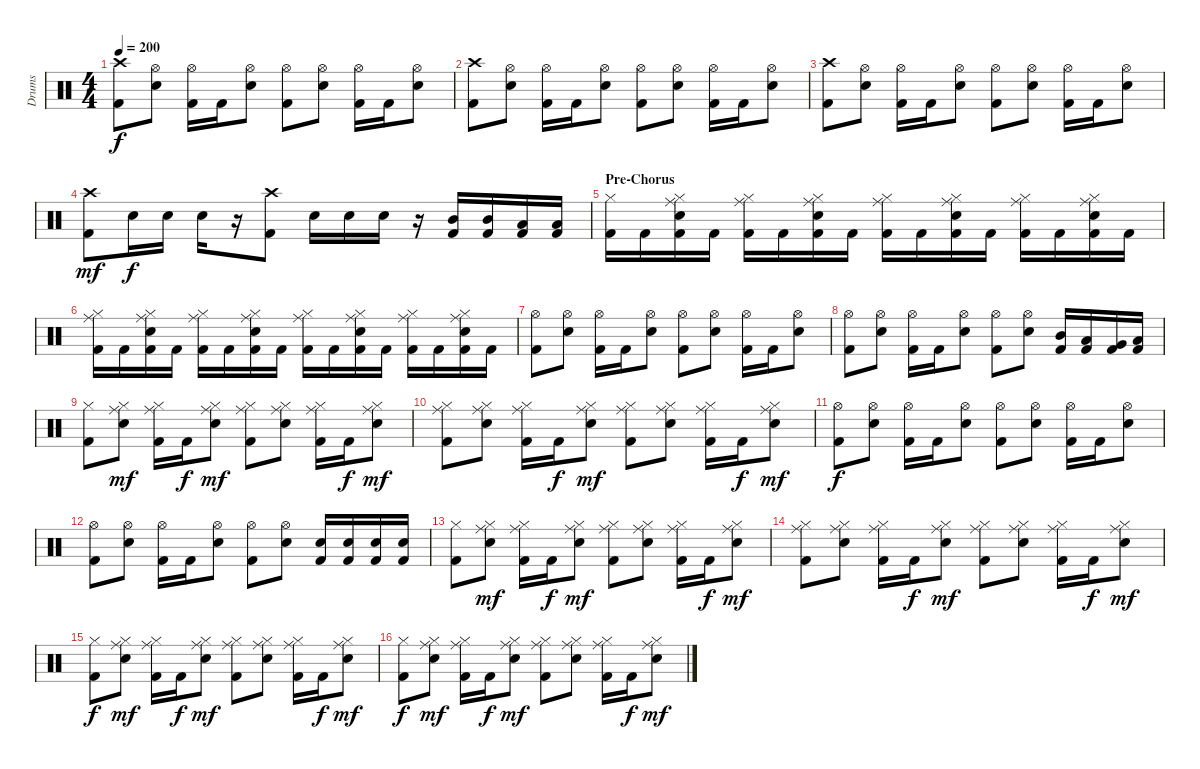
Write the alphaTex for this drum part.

\track ("Drums" "Drums") {instrument percussion}
\staff {score}
\articulation defaults
\ts (4 4)
\tempo 200
\clef neutral
\ks c
("Crash high (hit)" "Kick (hit) 2").8{dy f} ("Hi-Hat (open)" "Snare (hit) 2").8 ("Hi-Hat (open)" "Kick (hit) 2").16 "Kick (hit) 2".16 ("Hi-Hat (open)" "Snare (hit) 2").8 ("Hi-Hat (open)" "Kick (hit) 2").8 ("Hi-Hat (open)" "Snare (hit) 2").8 ("Hi-Hat (open)" "Kick (hit) 2").16 "Kick (hit) 2".16 ("Hi-Hat (open)" "Snare (hit) 2").8 |
("Crash high (hit)" "Kick (hit) 2").8 ("Hi-Hat (open)" "Snare (hit) 2").8 ("Hi-Hat (open)" "Kick (hit) 2").16 "Kick (hit) 2".16 ("Hi-Hat (open)" "Snare (hit) 2").8 ("Hi-Hat (open)" "Kick (hit) 2").8 ("Hi-Hat (open)" "Snare (hit) 2").8 ("Hi-Hat (open)" "Kick (hit) 2").16 "Kick (hit) 2".16 ("Hi-Hat (open)" "Snare (hit) 2").8 |
("Crash high (hit)" "Kick (hit) 2").8 ("Hi-Hat (open)" "Snare (hit) 2").8 ("Hi-Hat (open)" "Kick (hit) 2").16 "Kick (hit) 2".16 ("Hi-Hat (open)" "Snare (hit) 2").8 ("Hi-Hat (open)" "Kick (hit) 2").8 ("Hi-Hat (open)" "Snare (hit) 2").8 ("Hi-Hat (open)" "Kick (hit) 2").16 "Kick (hit) 2".16 ("Hi-Hat (open)" "Snare (hit) 2").8 |
("Crash high (hit)" "Kick (hit) 2").8{dy mf} "Snare (hit) 2".16{dy f} "Snare (hit) 2".16 "Snare (hit) 2".16 r.16 ("Crash high (hit)" "Kick (hit) 2").8 "Snare (hit) 2".16 "Snare (hit) 2".16 "Snare (hit) 2".16 r.16 ("Mid Tom (hit)" "Kick (hit) 2").16 ("Mid Tom (hit)" "Kick (hit) 2").16 ("Low Tom (hit)" "Kick (hit) 2").16 ("Low Tom (hit)" "Kick (hit) 2").16 |
\section ("" "Pre-Chorus")
("Hi-Hat (closed)" "Kick (hit) 2").16 "Kick (hit) 2".16 ("Hi-Hat (closed)" "Ride (middle)" "Snare (hit) 2" "Kick (hit) 2").16 "Kick (hit) 2".16 ("Hi-Hat (closed)" "Ride (middle)" "Kick (hit) 2").16 "Kick (hit) 2".16 ("Hi-Hat (closed)" "Ride (middle)" "Snare (hit) 2" "Kick (hit) 2").16 "Kick (hit) 2".16 ("Hi-Hat (closed)" "Ride (middle)" "Kick (hit) 2").16 "Kick (hit) 2".16 ("Hi-Hat (closed)" "Ride (middle)" "Snare (hit) 2" "Kick (hit) 2").16 "Kick (hit) 2".16 ("Hi-Hat (closed)" "Ride (middle)" "Kick (hit) 2").16 "Kick (hit) 2".16 ("Hi-Hat (closed)" "Ride (middle)" "Snare (hit) 2" "Kick (hit) 2").16 "Kick (hit) 2".16 |
("Hi-Hat (closed)" "Ride (middle)" "Kick (hit) 2").16 "Kick (hit) 2".16 ("Hi-Hat (closed)" "Ride (middle)" "Snare (hit) 2" "Kick (hit) 2").16 "Kick (hit) 2".16 ("Hi-Hat (closed)" "Ride (middle)" "Kick (hit) 2").16 "Kick (hit) 2".16 ("Hi-Hat (closed)" "Ride (middle)" "Snare (hit) 2" "Kick (hit) 2").16 "Kick (hit) 2".16 ("Hi-Hat (closed)" "Ride (middle)" "Kick (hit) 2").16 "Kick (hit) 2".16 ("Hi-Hat (closed)" "Ride (middle)" "Snare (hit) 2" "Kick (hit) 2").16 "Kick (hit) 2".16 ("Hi-Hat (closed)" "Ride (middle)" "Kick (hit) 2").16 "Kick (hit) 2".16 ("Hi-Hat (closed)" "Ride (middle)" "Snare (hit) 2" "Kick (hit) 2").16 "Kick (hit) 2".16 |
("Hi-Hat (open)" "Kick (hit) 2").8 ("Hi-Hat (open)" "Snare (hit) 2").8 ("Hi-Hat (open)" "Kick (hit) 2").16 "Kick (hit) 2".16 ("Hi-Hat (open)" "Snare (hit) 2").8 ("Hi-Hat (open)" "Kick (hit) 2").8 ("Hi-Hat (open)" "Snare (hit) 2").8 ("Hi-Hat (open)" "Kick (hit) 2").16 "Kick (hit) 2".16 ("Hi-Hat (open)" "Snare (hit) 2").8 |
("Hi-Hat (open)" "Kick (hit) 2").8 ("Hi-Hat (open)" "Snare (hit) 2").8 ("Hi-Hat (open)" "Kick (hit) 2").16 "Kick (hit) 2".16 ("Hi-Hat (open)" "Snare (hit) 2").8 ("Hi-Hat (open)" "Kick (hit) 2").8 ("Hi-Hat (open)" "Snare (hit) 2").8 ("Mid Tom (hit)" "Kick (hit) 2").16 ("Low Tom (hit)" "Kick (hit) 2").16 ("Very Low Tom (hit)" "Kick (hit) 2").16 ("Low Floor Tom (hit)" "Kick (hit) 2").16 |
("Hi-Hat (closed)" "Kick (hit) 2").8 ("Hi-Hat (closed)" "Ride (middle)" "Snare (hit) 2").8{dy mf} ("Hi-Hat (closed)" "Ride (middle)" "Kick (hit) 2").16 "Kick (hit) 2".16{dy f} ("Hi-Hat (closed)" "Ride (middle)" "Snare (hit) 2").8{dy mf} ("Hi-Hat (closed)" "Ride (middle)" "Kick (hit) 2").8 ("Hi-Hat (closed)" "Ride (middle)" "Snare (hit) 2").8 ("Hi-Hat (closed)" "Ride (middle)" "Kick (hit) 2").16 "Kick (hit) 2".16{dy f} ("Hi-Hat (closed)" "Ride (middle)" "Snare (hit) 2").8{dy mf} |
("Hi-Hat (closed)" "Ride (middle)" "Kick (hit) 2").8 ("Hi-Hat (closed)" "Ride (middle)" "Snare (hit) 2").8 ("Hi-Hat (closed)" "Ride (middle)" "Kick (hit) 2").16 "Kick (hit) 2".16{dy f} ("Hi-Hat (closed)" "Ride (middle)" "Snare (hit) 2").8{dy mf} ("Hi-Hat (closed)" "Ride (middle)" "Kick (hit) 2").8 ("Hi-Hat (closed)" "Ride (middle)" "Snare (hit) 2").8 ("Hi-Hat (closed)" "Ride (middle)" "Kick (hit) 2").16 "Kick (hit) 2".16{dy f} ("Hi-Hat (closed)" "Ride (middle)" "Snare (hit) 2").8{dy mf} |
("Hi-Hat (open)" "Kick (hit) 2").8{dy f} ("Hi-Hat (open)" "Snare (hit) 2").8 ("Hi-Hat (open)" "Kick (hit) 2").16 "Kick (hit) 2".16 ("Hi-Hat (open)" "Snare (hit) 2").8 ("Hi-Hat (open)" "Kick (hit) 2").8 ("Hi-Hat (open)" "Snare (hit) 2").8 ("Hi-Hat (open)" "Kick (hit) 2").16 "Kick (hit) 2".16 ("Hi-Hat (open)" "Snare (hit) 2").8 |
("Hi-Hat (open)" "Kick (hit) 2").8 ("Hi-Hat (open)" "Snare (hit) 2").8 ("Hi-Hat (open)" "Kick (hit) 2").16 "Kick (hit) 2".16 ("Hi-Hat (open)" "Snare (hit) 2").8 ("Hi-Hat (open)" "Kick (hit) 2").8 ("Hi-Hat (open)" "Snare (hit) 2").8 ("Snare (hit) 2" "Kick (hit) 2").16 ("Snare (hit) 2" "Kick (hit) 2").16 ("Snare (hit) 2" "Kick (hit) 2").16 ("Snare (hit) 2" "Kick (hit) 2").16 |
("Hi-Hat (closed)" "Kick (hit) 2").8 ("Hi-Hat (closed)" "Ride (middle)" "Snare (hit) 2").8{dy mf} ("Hi-Hat (closed)" "Ride (middle)" "Kick (hit) 2").16 "Kick (hit) 2".16{dy f} ("Hi-Hat (closed)" "Ride (middle)" "Snare (hit) 2").8{dy mf} ("Hi-Hat (closed)" "Ride (middle)" "Kick (hit) 2").8 ("Hi-Hat (closed)" "Ride (middle)" "Snare (hit) 2").8 ("Hi-Hat (closed)" "Ride (middle)" "Kick (hit) 2").16 "Kick (hit) 2".16{dy f} ("Hi-Hat (closed)" "Ride (middle)" "Snare (hit) 2").8{dy mf} |
("Hi-Hat (closed)" "Ride (middle)" "Kick (hit) 2").8 ("Hi-Hat (closed)" "Ride (middle)" "Snare (hit) 2").8 ("Hi-Hat (closed)" "Ride (middle)" "Kick (hit) 2").16 "Kick (hit) 2".16{dy f} ("Hi-Hat (closed)" "Ride (middle)" "Snare (hit) 2").8{dy mf} ("Hi-Hat (closed)" "Ride (middle)" "Kick (hit) 2").8 ("Hi-Hat (closed)" "Ride (middle)" "Snare (hit) 2").8 ("Hi-Hat (closed)" "Ride (middle)" "Kick (hit) 2").16 "Kick (hit) 2".16{dy f} ("Hi-Hat (closed)" "Ride (middle)" "Snare (hit) 2").8{dy mf} |
("Hi-Hat (closed)" "Kick (hit) 2").8{dy f} ("Hi-Hat (closed)" "Ride (middle)" "Snare (hit) 2").8{dy mf} ("Hi-Hat (closed)" "Ride (middle)" "Kick (hit) 2").16 "Kick (hit) 2".16{dy f} ("Hi-Hat (closed)" "Ride (middle)" "Snare (hit) 2").8{dy mf} ("Hi-Hat (closed)" "Ride (middle)" "Kick (hit) 2").8 ("Hi-Hat (closed)" "Ride (middle)" "Snare (hit) 2").8 ("Hi-Hat (closed)" "Ride (middle)" "Kick (hit) 2").16 "Kick (hit) 2".16{dy f} ("Hi-Hat (closed)" "Ride (middle)" "Snare (hit) 2").8{dy mf} |
("Hi-Hat (closed)" "Kick (hit) 2").8{dy f} ("Hi-Hat (closed)" "Ride (middle)" "Snare (hit) 2").8{dy mf} ("Hi-Hat (closed)" "Ride (middle)" "Kick (hit) 2").16 "Kick (hit) 2".16{dy f} ("Hi-Hat (closed)" "Ride (middle)" "Snare (hit) 2").8{dy mf} ("Hi-Hat (closed)" "Ride (middle)" "Kick (hit) 2").8 ("Hi-Hat (closed)" "Ride (middle)" "Snare (hit) 2").8 ("Hi-Hat (closed)" "Ride (middle)" "Kick (hit) 2").16 "Kick (hit) 2".16{dy f} ("Hi-Hat (closed)" "Ride (middle)" "Snare (hit) 2").8{dy mf}
